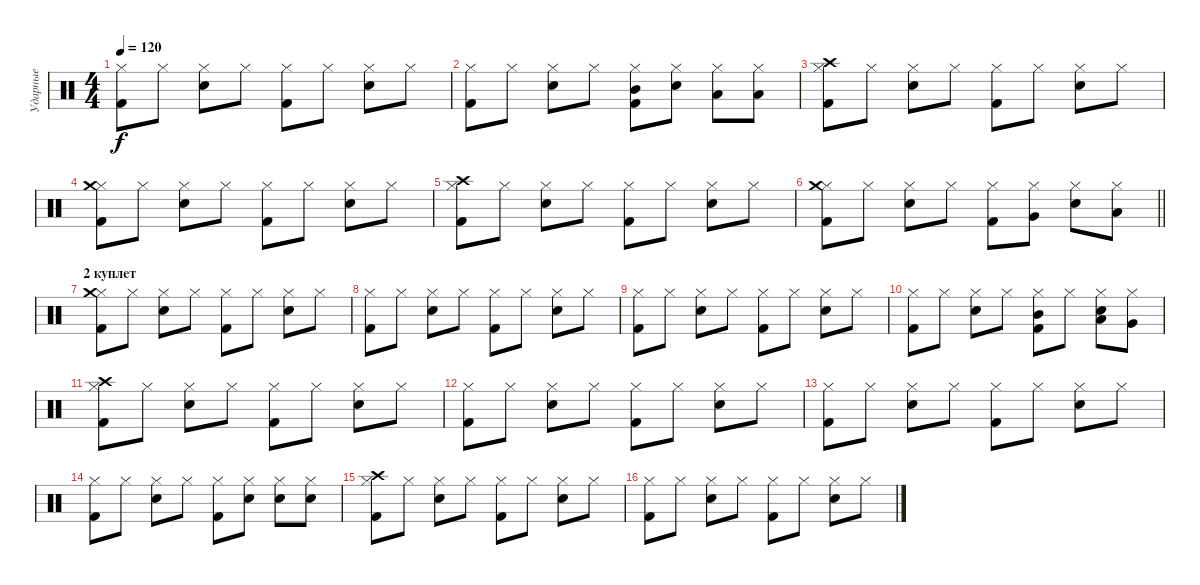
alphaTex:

\track ("Ударные" "Ударные") {instrument percussion}
\staff {score}
\articulation defaults
\ts (4 4)
\tempo 120
\clef neutral
\ks c
("Hi-Hat (closed)" "Kick (hit) 2").8{dy f} "Hi-Hat (closed)".8 ("Hi-Hat (closed)" "Snare (hit) 2").8 "Hi-Hat (closed)".8 ("Hi-Hat (closed)" "Kick (hit) 2").8 "Hi-Hat (closed)".8 ("Hi-Hat (closed)" "Snare (hit) 2").8 "Hi-Hat (closed)".8 |
("Hi-Hat (closed)" "Kick (hit) 2").8 "Hi-Hat (closed)".8 ("Hi-Hat (closed)" "Snare (hit) 2").8 "Hi-Hat (closed)".8 ("Hi-Hat (closed)" "Kick (hit) 2" "Mid Tom (hit)").8 ("Hi-Hat (closed)" "Snare (hit) 2").8 ("Hi-Hat (closed)" "Low Floor Tom (hit)").8 ("Hi-Hat (closed)" "Low Tom (hit)").8 |
("Hi-Hat (closed)" "Kick (hit) 2" "Crash high (hit)").8 "Hi-Hat (closed)".8 ("Hi-Hat (closed)" "Snare (hit) 2").8 "Hi-Hat (closed)".8 ("Hi-Hat (closed)" "Kick (hit) 2").8 "Hi-Hat (closed)".8 ("Hi-Hat (closed)" "Snare (hit) 2").8 "Hi-Hat (closed)".8 |
("Hi-Hat (closed)" "Kick (hit) 2" "Crash medium (hit)").8 "Hi-Hat (closed)".8 ("Hi-Hat (closed)" "Snare (hit) 2").8 "Hi-Hat (closed)".8 ("Hi-Hat (closed)" "Kick (hit) 2").8 "Hi-Hat (closed)".8 ("Hi-Hat (closed)" "Snare (hit) 2").8 "Hi-Hat (closed)".8 |
("Hi-Hat (closed)" "Kick (hit) 2" "Crash high (hit)").8 "Hi-Hat (closed)".8 ("Hi-Hat (closed)" "Snare (hit) 2").8 "Hi-Hat (closed)".8 ("Hi-Hat (closed)" "Kick (hit) 2").8 "Hi-Hat (closed)".8 ("Hi-Hat (closed)" "Snare (hit) 2").8 "Hi-Hat (closed)".8 |
\barLineRight lightlight
("Hi-Hat (closed)" "Kick (hit) 2" "Crash medium (hit)").8 "Hi-Hat (closed)".8 ("Hi-Hat (closed)" "Snare (hit) 2").8 "Hi-Hat (closed)".8 ("Hi-Hat (closed)" "Kick (hit) 2").8 ("Hi-Hat (closed)" "Very Low Tom (hit)").8 ("Hi-Hat (closed)" "Snare (hit) 2").8 ("Hi-Hat (closed)" "Low Tom (hit)").8 |
\section ("" "2 куплет")
("Hi-Hat (closed)" "Kick (hit) 2" "Crash medium (hit)").8 "Hi-Hat (closed)".8 ("Hi-Hat (closed)" "Snare (hit) 2").8 "Hi-Hat (closed)".8 ("Hi-Hat (closed)" "Kick (hit) 2").8 "Hi-Hat (closed)".8 ("Hi-Hat (closed)" "Snare (hit) 2").8 "Hi-Hat (closed)".8 |
("Hi-Hat (closed)" "Kick (hit) 2").8 "Hi-Hat (closed)".8 ("Hi-Hat (closed)" "Snare (hit) 2").8 "Hi-Hat (closed)".8 ("Hi-Hat (closed)" "Kick (hit) 2").8 "Hi-Hat (closed)".8 ("Hi-Hat (closed)" "Snare (hit) 2").8 "Hi-Hat (closed)".8 |
("Hi-Hat (closed)" "Kick (hit) 2").8 "Hi-Hat (closed)".8 ("Hi-Hat (closed)" "Snare (hit) 2").8 "Hi-Hat (closed)".8 ("Hi-Hat (closed)" "Kick (hit) 2").8 "Hi-Hat (closed)".8 ("Hi-Hat (closed)" "Snare (hit) 2").8 "Hi-Hat (closed)".8 |
("Hi-Hat (closed)" "Kick (hit) 2").8 "Hi-Hat (closed)".8 ("Hi-Hat (closed)" "Snare (hit) 2").8 "Hi-Hat (closed)".8 ("Hi-Hat (closed)" "Kick (hit) 2" "Mid Tom (hit)").8 "Hi-Hat (closed)".8 ("Hi-Hat (closed)" "Low Floor Tom (hit)" "Snare (hit) 2").8 ("Hi-Hat (closed)" "Very Low Tom (hit)").8 |
("Hi-Hat (closed)" "Kick (hit) 2" "Crash high (hit)").8 "Hi-Hat (closed)".8 ("Hi-Hat (closed)" "Snare (hit) 2").8 "Hi-Hat (closed)".8 ("Hi-Hat (closed)" "Kick (hit) 2").8 "Hi-Hat (closed)".8 ("Hi-Hat (closed)" "Snare (hit) 2").8 "Hi-Hat (closed)".8 |
("Hi-Hat (closed)" "Kick (hit) 2").8 "Hi-Hat (closed)".8 ("Hi-Hat (closed)" "Snare (hit) 2").8 "Hi-Hat (closed)".8 ("Hi-Hat (closed)" "Kick (hit) 2").8 "Hi-Hat (closed)".8 ("Hi-Hat (closed)" "Snare (hit) 2").8 "Hi-Hat (closed)".8 |
("Hi-Hat (closed)" "Kick (hit) 2").8 "Hi-Hat (closed)".8 ("Hi-Hat (closed)" "Snare (hit) 2").8 "Hi-Hat (closed)".8 ("Hi-Hat (closed)" "Kick (hit) 2").8 "Hi-Hat (closed)".8 ("Hi-Hat (closed)" "Snare (hit) 2").8 "Hi-Hat (closed)".8 |
("Hi-Hat (closed)" "Kick (hit) 2").8 "Hi-Hat (closed)".8 ("Hi-Hat (closed)" "Snare (hit) 2").8 "Hi-Hat (closed)".8 ("Hi-Hat (closed)" "Kick (hit) 2").8 ("Hi-Hat (closed)" "Snare (hit) 2").8 ("Hi-Hat (closed)" "Snare (hit) 2").8 ("Hi-Hat (closed)" "Snare (hit) 2").8 |
("Hi-Hat (closed)" "Kick (hit) 2" "Crash high (hit)").8 "Hi-Hat (closed)".8 ("Hi-Hat (closed)" "Snare (hit) 2").8 "Hi-Hat (closed)".8 ("Hi-Hat (closed)" "Kick (hit) 2").8 "Hi-Hat (closed)".8 ("Hi-Hat (closed)" "Snare (hit) 2").8 "Hi-Hat (closed)".8 |
("Hi-Hat (closed)" "Kick (hit) 2").8 "Hi-Hat (closed)".8 ("Hi-Hat (closed)" "Snare (hit) 2").8 "Hi-Hat (closed)".8 ("Hi-Hat (closed)" "Kick (hit) 2").8 "Hi-Hat (closed)".8 ("Hi-Hat (closed)" "Snare (hit) 2").8 "Hi-Hat (closed)".8
